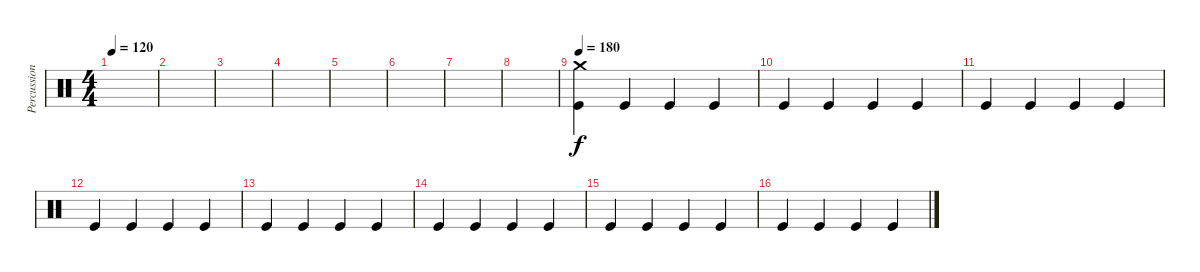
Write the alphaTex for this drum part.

\track ("Percussion" "Percussion") {instrument percussion}
\staff {score}
\articulation defaults
\ts (4 4)
\tempo 120
\clef neutral
\ks c
|
|
|
|
|
|
|
|
\tempo 180
("Crash medium (hit)" "Kick (hit)").4 "Kick (hit)".4 "Kick (hit)".4 "Kick (hit)".4 |
"Kick (hit)".4 "Kick (hit)".4 "Kick (hit)".4 "Kick (hit)".4 |
"Kick (hit)".4 "Kick (hit)".4 "Kick (hit)".4 "Kick (hit)".4 |
"Kick (hit)".4 "Kick (hit)".4 "Kick (hit)".4 "Kick (hit)".4 |
"Kick (hit)".4 "Kick (hit)".4 "Kick (hit)".4 "Kick (hit)".4 |
"Kick (hit)".4 "Kick (hit)".4 "Kick (hit)".4 "Kick (hit)".4 |
"Kick (hit)".4 "Kick (hit)".4 "Kick (hit)".4 "Kick (hit)".4 |
"Kick (hit)".4 "Kick (hit)".4 "Kick (hit)".4 "Kick (hit)".4
